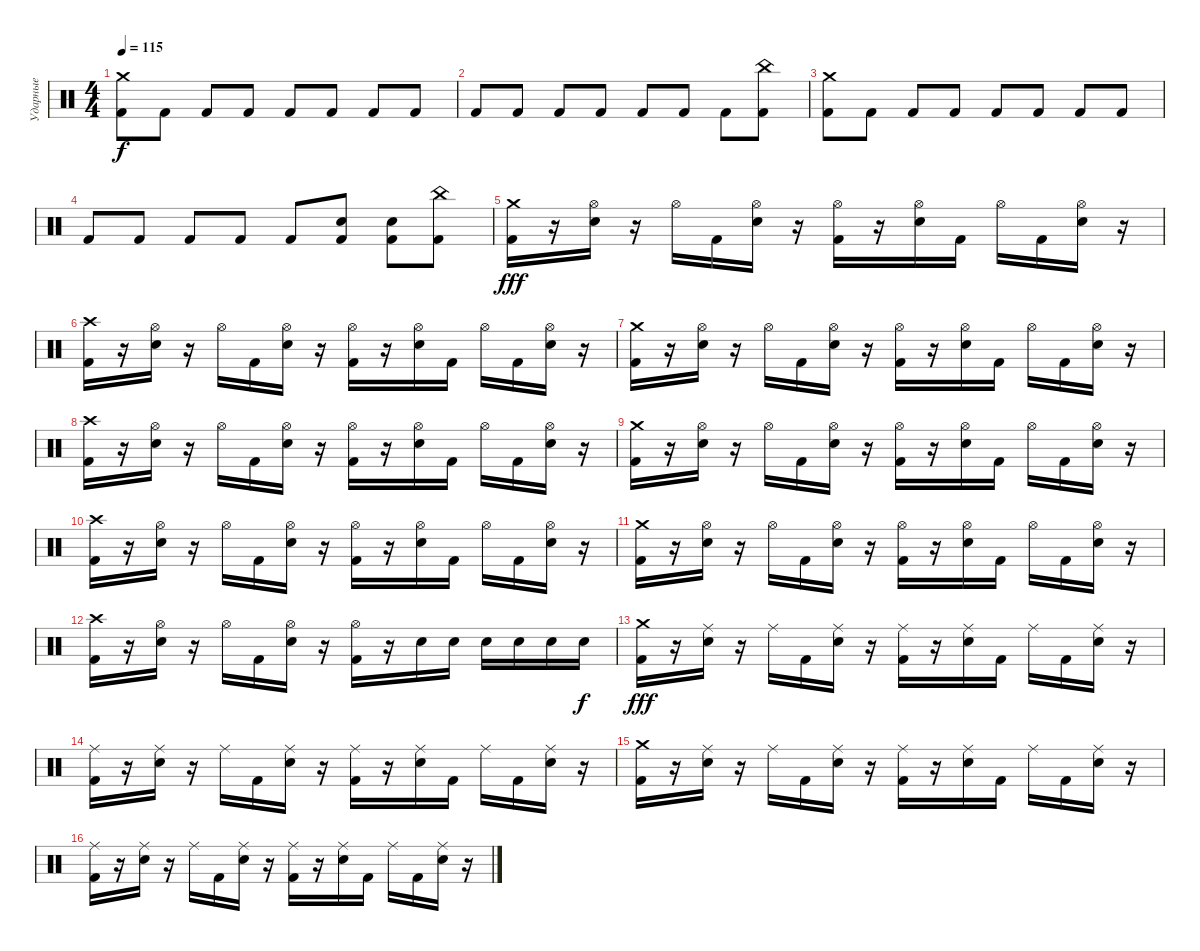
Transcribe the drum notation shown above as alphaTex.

\track ("Ударные" "Ударные") {instrument percussion}
\staff {score}
\articulation defaults
\ts (4 4)
\tempo 115
\clef neutral
\ks c
("Crash medium (hit)" "Kick (hit) 2").8{dy f} "Kick (hit) 2".8 "Kick (hit) 2".8 "Kick (hit) 2".8 "Kick (hit) 2".8 "Kick (hit) 2".8 "Kick (hit) 2".8 "Kick (hit) 2".8 |
"Kick (hit) 2".8 "Kick (hit) 2".8 "Kick (hit) 2".8 "Kick (hit) 2".8 "Kick (hit) 2".8 "Kick (hit) 2".8 "Kick (hit) 2".8 ("China (hit)" "Kick (hit) 2").8 |
("Crash medium (hit)" "Kick (hit) 2").8 "Kick (hit) 2".8 "Kick (hit) 2".8 "Kick (hit) 2".8 "Kick (hit) 2".8 "Kick (hit) 2".8 "Kick (hit) 2".8 "Kick (hit) 2".8 |
"Kick (hit) 2".8 "Kick (hit) 2".8 "Kick (hit) 2".8 "Kick (hit) 2".8 "Kick (hit) 2".8 ("Electric Snare (hit)" "Kick (hit) 2").8 ("Electric Snare (hit)" "Kick (hit) 2").8 ("China (hit)" "Kick (hit) 2").8 |
("Crash medium (hit)" "Kick (hit) 2").16{dy fff} r.16 ("Electric Snare (hit)" "Hi-Hat (open)").16 r.16 "Hi-Hat (open)".16 "Kick (hit) 2".16 ("Electric Snare (hit)" "Hi-Hat (open)").16 r.16 ("Kick (hit) 2" "Hi-Hat (open)").16 r.16 ("Electric Snare (hit)" "Hi-Hat (open)").16 "Kick (hit) 2".16 "Hi-Hat (open)".16 "Kick (hit) 2".16 ("Electric Snare (hit)" "Hi-Hat (open)").16 r.16 |
("Crash high (hit)" "Kick (hit) 2").16 r.16 ("Electric Snare (hit)" "Hi-Hat (open)").16 r.16 "Hi-Hat (open)".16 "Kick (hit) 2".16 ("Electric Snare (hit)" "Hi-Hat (open)").16 r.16 ("Kick (hit) 2" "Hi-Hat (open)").16 r.16 ("Electric Snare (hit)" "Hi-Hat (open)").16 "Kick (hit) 2".16 "Hi-Hat (open)".16 "Kick (hit) 2".16 ("Electric Snare (hit)" "Hi-Hat (open)").16 r.16 |
("Crash medium (hit)" "Kick (hit) 2").16 r.16 ("Electric Snare (hit)" "Hi-Hat (open)").16 r.16 "Hi-Hat (open)".16 "Kick (hit) 2".16 ("Electric Snare (hit)" "Hi-Hat (open)").16 r.16 ("Kick (hit) 2" "Hi-Hat (open)").16 r.16 ("Electric Snare (hit)" "Hi-Hat (open)").16 "Kick (hit) 2".16 "Hi-Hat (open)".16 "Kick (hit) 2".16 ("Electric Snare (hit)" "Hi-Hat (open)").16 r.16 |
("Crash high (hit)" "Kick (hit) 2").16 r.16 ("Electric Snare (hit)" "Hi-Hat (open)").16 r.16 "Hi-Hat (open)".16 "Kick (hit) 2".16 ("Electric Snare (hit)" "Hi-Hat (open)").16 r.16 ("Kick (hit) 2" "Hi-Hat (open)").16 r.16 ("Electric Snare (hit)" "Hi-Hat (open)").16 "Kick (hit) 2".16 "Hi-Hat (open)".16 "Kick (hit) 2".16 ("Electric Snare (hit)" "Hi-Hat (open)").16 r.16 |
("Crash medium (hit)" "Kick (hit) 2").16 r.16 ("Electric Snare (hit)" "Hi-Hat (open)").16 r.16 "Hi-Hat (open)".16 "Kick (hit) 2".16 ("Electric Snare (hit)" "Hi-Hat (open)").16 r.16 ("Kick (hit) 2" "Hi-Hat (open)").16 r.16 ("Electric Snare (hit)" "Hi-Hat (open)").16 "Kick (hit) 2".16 "Hi-Hat (open)".16 "Kick (hit) 2".16 ("Electric Snare (hit)" "Hi-Hat (open)").16 r.16 |
("Crash high (hit)" "Kick (hit) 2").16 r.16 ("Electric Snare (hit)" "Hi-Hat (open)").16 r.16 "Hi-Hat (open)".16 "Kick (hit) 2".16 ("Electric Snare (hit)" "Hi-Hat (open)").16 r.16 ("Kick (hit) 2" "Hi-Hat (open)").16 r.16 ("Electric Snare (hit)" "Hi-Hat (open)").16 "Kick (hit) 2".16 "Hi-Hat (open)".16 "Kick (hit) 2".16 ("Electric Snare (hit)" "Hi-Hat (open)").16 r.16 |
("Crash medium (hit)" "Kick (hit) 2").16 r.16 ("Electric Snare (hit)" "Hi-Hat (open)").16 r.16 "Hi-Hat (open)".16 "Kick (hit) 2".16 ("Electric Snare (hit)" "Hi-Hat (open)").16 r.16 ("Kick (hit) 2" "Hi-Hat (open)").16 r.16 ("Electric Snare (hit)" "Hi-Hat (open)").16 "Kick (hit) 2".16 "Hi-Hat (open)".16 "Kick (hit) 2".16 ("Electric Snare (hit)" "Hi-Hat (open)").16 r.16 |
("Crash high (hit)" "Kick (hit) 2").16 r.16 ("Electric Snare (hit)" "Hi-Hat (open)").16 r.16 "Hi-Hat (open)".16 "Kick (hit) 2".16 ("Electric Snare (hit)" "Hi-Hat (open)").16 r.16 ("Kick (hit) 2" "Hi-Hat (open)").16 r.16 "Electric Snare (hit)".16 "Electric Snare (hit)".16 "Electric Snare (hit)".16 "Electric Snare (hit)".16 "Electric Snare (hit)".16 "Electric Snare (hit)".16{dy f} |
("Crash medium (hit)" "Kick (hit) 2").16{dy fff} r.16 ("Electric Snare (hit)" "Ride (middle)").16 r.16 "Ride (middle)".16 "Kick (hit) 2".16 ("Electric Snare (hit)" "Ride (middle)").16 r.16 ("Kick (hit) 2" "Ride (middle)").16 r.16 ("Electric Snare (hit)" "Ride (middle)").16 "Kick (hit) 2".16 "Ride (middle)".16 "Kick (hit) 2".16 ("Electric Snare (hit)" "Ride (middle)").16 r.16 |
("Ride (middle)" "Kick (hit) 2").16 r.16 ("Electric Snare (hit)" "Ride (middle)").16 r.16 "Ride (middle)".16 "Kick (hit) 2".16 ("Electric Snare (hit)" "Ride (middle)").16 r.16 ("Kick (hit) 2" "Ride (middle)").16 r.16 ("Electric Snare (hit)" "Ride (middle)").16 "Kick (hit) 2".16 "Ride (middle)".16 "Kick (hit) 2".16 ("Electric Snare (hit)" "Ride (middle)").16 r.16 |
("Crash medium (hit)" "Kick (hit) 2").16 r.16 ("Electric Snare (hit)" "Ride (middle)").16 r.16 "Ride (middle)".16 "Kick (hit) 2".16 ("Electric Snare (hit)" "Ride (middle)").16 r.16 ("Kick (hit) 2" "Ride (middle)").16 r.16 ("Electric Snare (hit)" "Ride (middle)").16 "Kick (hit) 2".16 "Ride (middle)".16 "Kick (hit) 2".16 ("Electric Snare (hit)" "Ride (middle)").16 r.16 |
("Ride (middle)" "Kick (hit) 2").16 r.16 ("Electric Snare (hit)" "Ride (middle)").16 r.16 "Ride (middle)".16 "Kick (hit) 2".16 ("Electric Snare (hit)" "Ride (middle)").16 r.16 ("Kick (hit) 2" "Ride (middle)").16 r.16 ("Electric Snare (hit)" "Ride (middle)").16 "Kick (hit) 2".16 "Ride (middle)".16 "Kick (hit) 2".16 ("Electric Snare (hit)" "Ride (middle)").16 r.16
